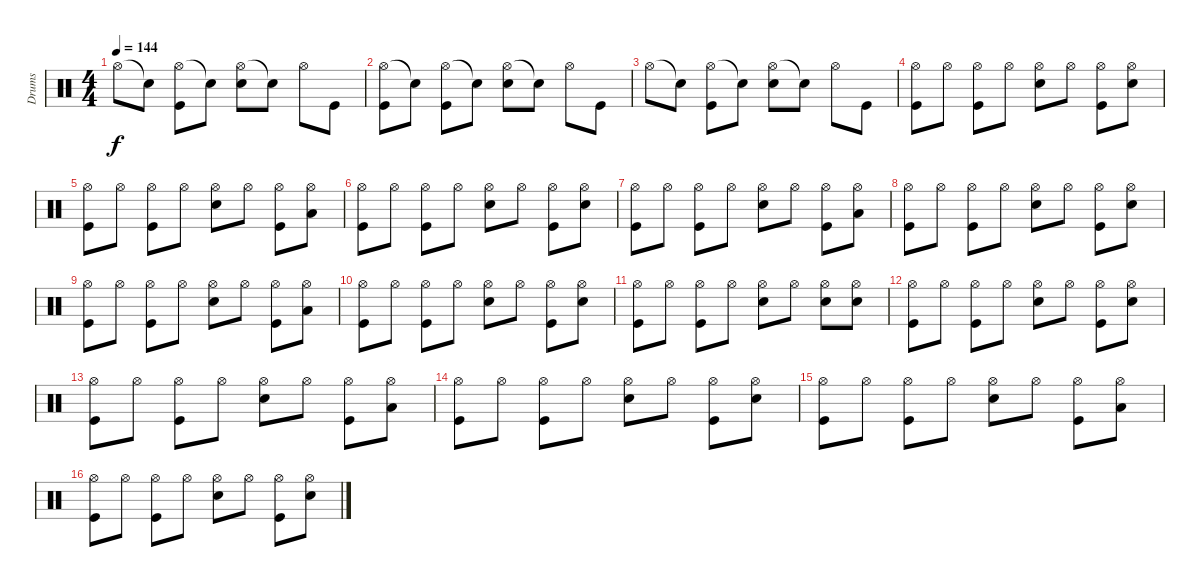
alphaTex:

\track ("Drums               " "Drums     ") {instrument percussion}
\staff {score}
\articulation defaults
\ts (4 4)
\tempo 144
\clef neutral
\ks c "Hi-Hat (open)".8{dy f} "Snare (hit)"{t}.8
("Hi-Hat (open)" "Kick (hit)").8 "Snare (hit)"{t}.8 ("Hi-Hat (open)" "Snare (hit) 2").8 "Snare (hit)"{t}.8 "Hi-Hat (open)".8 "Kick (hit)".8 |
("Hi-Hat (open)" "Kick (hit)").8 "Snare (hit)"{t}.8 ("Hi-Hat (open)" "Kick (hit)").8 "Snare (hit)"{t}.8 ("Hi-Hat (open)" "Snare (hit) 2").8 "Snare (hit)"{t}.8 "Hi-Hat (open)".8 "Kick (hit)".8 |
"Hi-Hat (open)".8 "Snare (hit)"{t}.8 ("Hi-Hat (open)" "Kick (hit)").8 "Snare (hit)"{t}.8 ("Hi-Hat (open)" "Snare (hit) 2").8 "Snare (hit)"{t}.8 "Hi-Hat (open)".8 "Kick (hit)".8 |
("Hi-Hat (open)" "Kick (hit)").8 "Hi-Hat (open)".8 ("Hi-Hat (open)" "Kick (hit)").8 "Hi-Hat (open)".8 ("Hi-Hat (open)" "Snare (hit) 2").8 "Hi-Hat (open)".8 ("Hi-Hat (open)" "Kick (hit)").8 ("Hi-Hat (open)" "Snare (hit) 2").8 |
("Hi-Hat (open)" "Kick (hit)").8 "Hi-Hat (open)".8 ("Hi-Hat (open)" "Kick (hit)").8 "Hi-Hat (open)".8 ("Hi-Hat (open)" "Snare (hit) 2").8 "Hi-Hat (open)".8 ("Hi-Hat (open)" "Kick (hit)").8 ("Hi-Hat (open)" "Low Tom (hit)").8 |
("Hi-Hat (open)" "Kick (hit)").8 "Hi-Hat (open)".8 ("Hi-Hat (open)" "Kick (hit)").8 "Hi-Hat (open)".8 ("Hi-Hat (open)" "Snare (hit) 2").8 "Hi-Hat (open)".8 ("Hi-Hat (open)" "Kick (hit)").8 ("Hi-Hat (open)" "Snare (hit) 2").8 |
("Hi-Hat (open)" "Kick (hit)").8 "Hi-Hat (open)".8 ("Hi-Hat (open)" "Kick (hit)").8 "Hi-Hat (open)".8 ("Hi-Hat (open)" "Snare (hit) 2").8 "Hi-Hat (open)".8 ("Hi-Hat (open)" "Kick (hit)").8 ("Hi-Hat (open)" "Low Tom (hit)").8 |
("Hi-Hat (open)" "Kick (hit)").8 "Hi-Hat (open)".8 ("Hi-Hat (open)" "Kick (hit)").8 "Hi-Hat (open)".8 ("Hi-Hat (open)" "Snare (hit) 2").8 "Hi-Hat (open)".8 ("Hi-Hat (open)" "Kick (hit)").8 ("Hi-Hat (open)" "Snare (hit) 2").8 |
("Hi-Hat (open)" "Kick (hit)").8 "Hi-Hat (open)".8 ("Hi-Hat (open)" "Kick (hit)").8 "Hi-Hat (open)".8 ("Hi-Hat (open)" "Snare (hit) 2").8 "Hi-Hat (open)".8 ("Hi-Hat (open)" "Kick (hit)").8 ("Hi-Hat (open)" "Low Tom (hit)").8 |
("Hi-Hat (open)" "Kick (hit)").8 "Hi-Hat (open)".8 ("Hi-Hat (open)" "Kick (hit)").8 "Hi-Hat (open)".8 ("Hi-Hat (open)" "Snare (hit) 2").8 "Hi-Hat (open)".8 ("Hi-Hat (open)" "Kick (hit)").8 ("Hi-Hat (open)" "Snare (hit) 2").8 |
("Hi-Hat (open)" "Kick (hit)").8 "Hi-Hat (open)".8 ("Hi-Hat (open)" "Kick (hit)").8 "Hi-Hat (open)".8 ("Hi-Hat (open)" "Snare (hit) 2").8 "Hi-Hat (open)".8 ("Hi-Hat (open)" "Snare (hit) 2").8 ("Hi-Hat (open)" "Snare (hit) 2").8 |
("Hi-Hat (open)" "Kick (hit)").8 "Hi-Hat (open)".8 ("Hi-Hat (open)" "Kick (hit)").8 "Hi-Hat (open)".8 ("Hi-Hat (open)" "Snare (hit) 2").8 "Hi-Hat (open)".8 ("Hi-Hat (open)" "Kick (hit)").8 ("Hi-Hat (open)" "Snare (hit) 2").8 |
("Hi-Hat (open)" "Kick (hit)").8 "Hi-Hat (open)".8 ("Hi-Hat (open)" "Kick (hit)").8 "Hi-Hat (open)".8 ("Hi-Hat (open)" "Snare (hit) 2").8 "Hi-Hat (open)".8 ("Hi-Hat (open)" "Kick (hit)").8 ("Hi-Hat (open)" "Low Tom (hit)").8 |
("Hi-Hat (open)" "Kick (hit)").8 "Hi-Hat (open)".8 ("Hi-Hat (open)" "Kick (hit)").8 "Hi-Hat (open)".8 ("Hi-Hat (open)" "Snare (hit) 2").8 "Hi-Hat (open)".8 ("Hi-Hat (open)" "Kick (hit)").8 ("Hi-Hat (open)" "Snare (hit) 2").8 |
("Hi-Hat (open)" "Kick (hit)").8 "Hi-Hat (open)".8 ("Hi-Hat (open)" "Kick (hit)").8 "Hi-Hat (open)".8 ("Hi-Hat (open)" "Snare (hit) 2").8 "Hi-Hat (open)".8 ("Hi-Hat (open)" "Kick (hit)").8 ("Hi-Hat (open)" "Low Tom (hit)").8 |
("Hi-Hat (open)" "Kick (hit)").8 "Hi-Hat (open)".8 ("Hi-Hat (open)" "Kick (hit)").8 "Hi-Hat (open)".8 ("Hi-Hat (open)" "Snare (hit) 2").8 "Hi-Hat (open)".8 ("Hi-Hat (open)" "Kick (hit)").8 ("Hi-Hat (open)" "Snare (hit) 2").8
